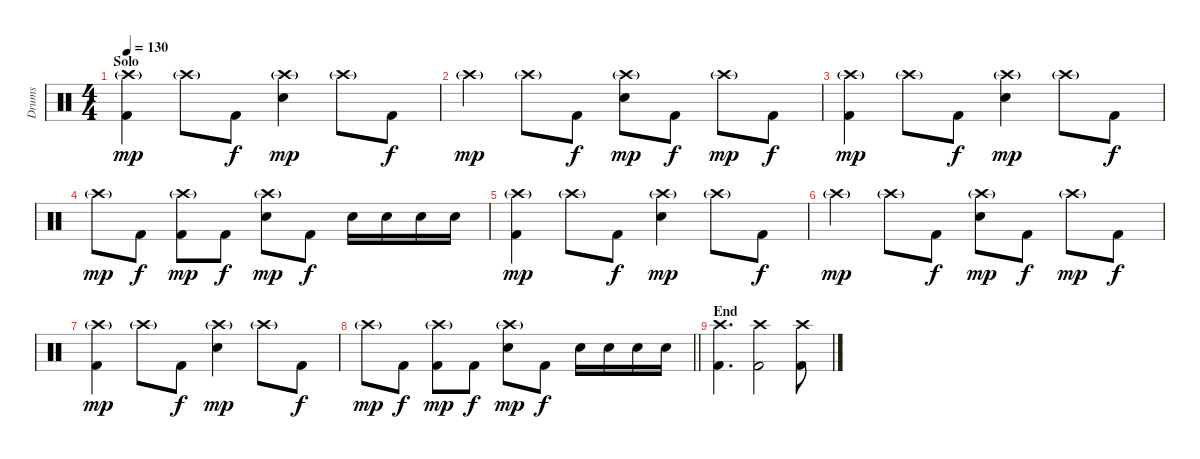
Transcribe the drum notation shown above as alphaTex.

\track ("Drums" "Drums") {instrument percussion}
\staff {score}
\articulation defaults
\ts (4 4)
\section ("" "Solo")
\tempo 130
\clef neutral
\ks c
("Crash high (hit)"{g} "Kick (hit) 2").4{dy mp} "Crash high (hit)"{g}.8 "Kick (hit) 2".8{dy f} ("Crash high (hit)"{g} "Electric Snare (hit)").4{dy mp} "Crash high (hit)"{g}.8 "Kick (hit) 2".8{dy f} |
"Crash high (hit)"{g}.4{dy mp} "Crash high (hit)"{g}.8 "Kick (hit) 2".8{dy f} ("Crash high (hit)"{g} "Electric Snare (hit)").8{dy mp} "Kick (hit) 2".8{dy f} "Crash high (hit)"{g}.8{dy mp} "Kick (hit) 2".8{dy f} |
("Crash high (hit)"{g} "Kick (hit) 2").4{dy mp} "Crash high (hit)"{g}.8 "Kick (hit) 2".8{dy f} ("Crash high (hit)"{g} "Electric Snare (hit)").4{dy mp} "Crash high (hit)"{g}.8 "Kick (hit) 2".8{dy f} |
"Crash high (hit)"{g}.8{dy mp} "Kick (hit) 2".8{dy f} ("Crash high (hit)"{g} "Kick (hit) 2").8{dy mp} "Kick (hit) 2".8{dy f} ("Crash high (hit)"{g} "Electric Snare (hit)").8{dy mp} "Kick (hit) 2".8{dy f} "Electric Snare (hit)".16 "Electric Snare (hit)".16 "Electric Snare (hit)".16 "Electric Snare (hit)".16 |
("Crash high (hit)"{g} "Kick (hit) 2").4{dy mp} "Crash high (hit)"{g}.8 "Kick (hit) 2".8{dy f} ("Crash high (hit)"{g} "Electric Snare (hit)").4{dy mp} "Crash high (hit)"{g}.8 "Kick (hit) 2".8{dy f} |
"Crash high (hit)"{g}.4{dy mp} "Crash high (hit)"{g}.8 "Kick (hit) 2".8{dy f} ("Crash high (hit)"{g} "Electric Snare (hit)").8{dy mp} "Kick (hit) 2".8{dy f} "Crash high (hit)"{g}.8{dy mp} "Kick (hit) 2".8{dy f} |
("Crash high (hit)"{g} "Kick (hit) 2").4{dy mp} "Crash high (hit)"{g}.8 "Kick (hit) 2".8{dy f} ("Crash high (hit)"{g} "Electric Snare (hit)").4{dy mp} "Crash high (hit)"{g}.8 "Kick (hit) 2".8{dy f} |
\barLineRight lightlight "Crash high (hit)"{g}.8{dy mp} "Kick (hit) 2".8{dy f}
("Crash high (hit)"{g} "Kick (hit) 2").8{dy mp} "Kick (hit) 2".8{dy f} ("Crash high (hit)"{g} "Electric Snare (hit)").8{dy mp} "Kick (hit) 2".8{dy f} "Electric Snare (hit)".16 "Electric Snare (hit)".16 "Electric Snare (hit)".16 "Electric Snare (hit)".16 |
\section ("" "End")
("Crash high (hit)" "Kick (hit) 2").4{d} ("Crash high (hit)" "Kick (hit) 2").2 ("Crash high (hit)" "Kick (hit) 2").8
